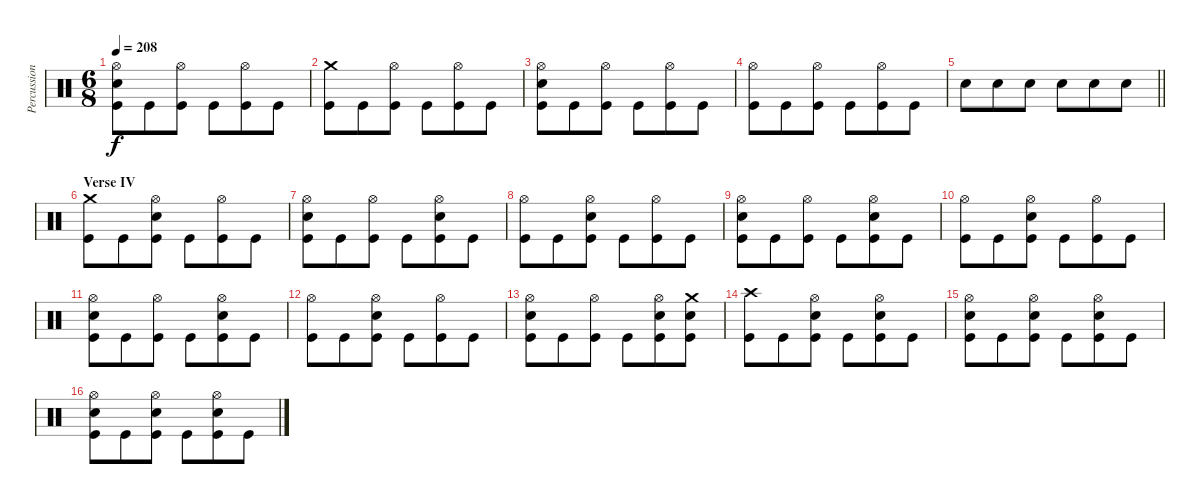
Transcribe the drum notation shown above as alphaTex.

\track ("Percussion" "Percussion") {instrument percussion}
\staff {score}
\articulation defaults
\ts (6 8)
\tempo 208
\clef neutral
\ks c
("Hi-Hat (open)" "Electric Snare (hit)" "Kick (hit)").8{dy f} "Kick (hit)".8 ("Hi-Hat (open)" "Kick (hit)").8 "Kick (hit)".8 ("Hi-Hat (open)" "Kick (hit)").8 "Kick (hit)".8 |
("Crash medium (hit)" "Kick (hit)").8 "Kick (hit)".8 ("Hi-Hat (open)" "Kick (hit)").8 "Kick (hit)".8 ("Hi-Hat (open)" "Kick (hit)").8 "Kick (hit)".8 |
("Hi-Hat (open)" "Electric Snare (hit)" "Kick (hit)").8 "Kick (hit)".8 ("Hi-Hat (open)" "Kick (hit)").8 "Kick (hit)".8 ("Hi-Hat (open)" "Kick (hit)").8 "Kick (hit)".8 |
("Hi-Hat (open)" "Kick (hit)").8 "Kick (hit)".8 ("Hi-Hat (open)" "Kick (hit)").8 "Kick (hit)".8 ("Hi-Hat (open)" "Kick (hit)").8 "Kick (hit)".8 |
\barLineRight lightlight "Electric Snare (hit)".8 "Electric Snare (hit)".8 "Electric Snare (hit)".8 "Electric Snare (hit)".8 "Electric Snare (hit)".8 "Electric Snare (hit)".8
|
\section ("" "Verse IV")
("Crash medium (hit)" "Kick (hit)").8 "Kick (hit)".8 ("Hi-Hat (open)" "Electric Snare (hit)" "Kick (hit)").8 "Kick (hit)".8 ("Hi-Hat (open)" "Kick (hit)").8 "Kick (hit)".8 |
("Hi-Hat (open)" "Electric Snare (hit)" "Kick (hit)").8 "Kick (hit)".8 ("Hi-Hat (open)" "Kick (hit)").8 "Kick (hit)".8 ("Hi-Hat (open)" "Electric Snare (hit)" "Kick (hit)").8 "Kick (hit)".8 |
("Hi-Hat (open)" "Kick (hit)").8 "Kick (hit)".8 ("Hi-Hat (open)" "Electric Snare (hit)" "Kick (hit)").8 "Kick (hit)".8 ("Hi-Hat (open)" "Kick (hit)").8 "Kick (hit)".8 |
("Hi-Hat (open)" "Electric Snare (hit)" "Kick (hit)").8 "Kick (hit)".8 ("Hi-Hat (open)" "Kick (hit)").8 "Kick (hit)".8 ("Hi-Hat (open)" "Electric Snare (hit)" "Kick (hit)").8 "Kick (hit)".8 |
("Hi-Hat (open)" "Kick (hit)").8 "Kick (hit)".8 ("Hi-Hat (open)" "Electric Snare (hit)" "Kick (hit)").8 "Kick (hit)".8 ("Hi-Hat (open)" "Kick (hit)").8 "Kick (hit)".8 |
("Hi-Hat (open)" "Electric Snare (hit)" "Kick (hit)").8 "Kick (hit)".8 ("Hi-Hat (open)" "Kick (hit)").8 "Kick (hit)".8 ("Hi-Hat (open)" "Electric Snare (hit)" "Kick (hit)").8 "Kick (hit)".8 |
("Hi-Hat (open)" "Kick (hit)").8 "Kick (hit)".8 ("Hi-Hat (open)" "Electric Snare (hit)" "Kick (hit)").8 "Kick (hit)".8 ("Hi-Hat (open)" "Kick (hit)").8 "Kick (hit)".8 |
("Hi-Hat (open)" "Electric Snare (hit)" "Kick (hit)").8 "Kick (hit)".8 ("Hi-Hat (open)" "Kick (hit)").8 "Kick (hit)".8 ("Hi-Hat (open)" "Electric Snare (hit)" "Kick (hit)").8 ("Crash medium (hit)" "Electric Snare (hit)" "Kick (hit)").8 |
("Crash high (hit)" "Kick (hit)").8 "Kick (hit)".8 ("Hi-Hat (open)" "Electric Snare (hit)" "Kick (hit)").8 "Kick (hit)".8 ("Hi-Hat (open)" "Electric Snare (hit)" "Kick (hit)").8 "Kick (hit)".8 |
("Hi-Hat (open)" "Electric Snare (hit)" "Kick (hit)").8 "Kick (hit)".8 ("Hi-Hat (open)" "Electric Snare (hit)" "Kick (hit)").8 "Kick (hit)".8 ("Hi-Hat (open)" "Electric Snare (hit)" "Kick (hit)").8 "Kick (hit)".8 |
("Hi-Hat (open)" "Electric Snare (hit)" "Kick (hit)").8 "Kick (hit)".8 ("Hi-Hat (open)" "Electric Snare (hit)" "Kick (hit)").8 "Kick (hit)".8 ("Hi-Hat (open)" "Electric Snare (hit)" "Kick (hit)").8 "Kick (hit)".8
